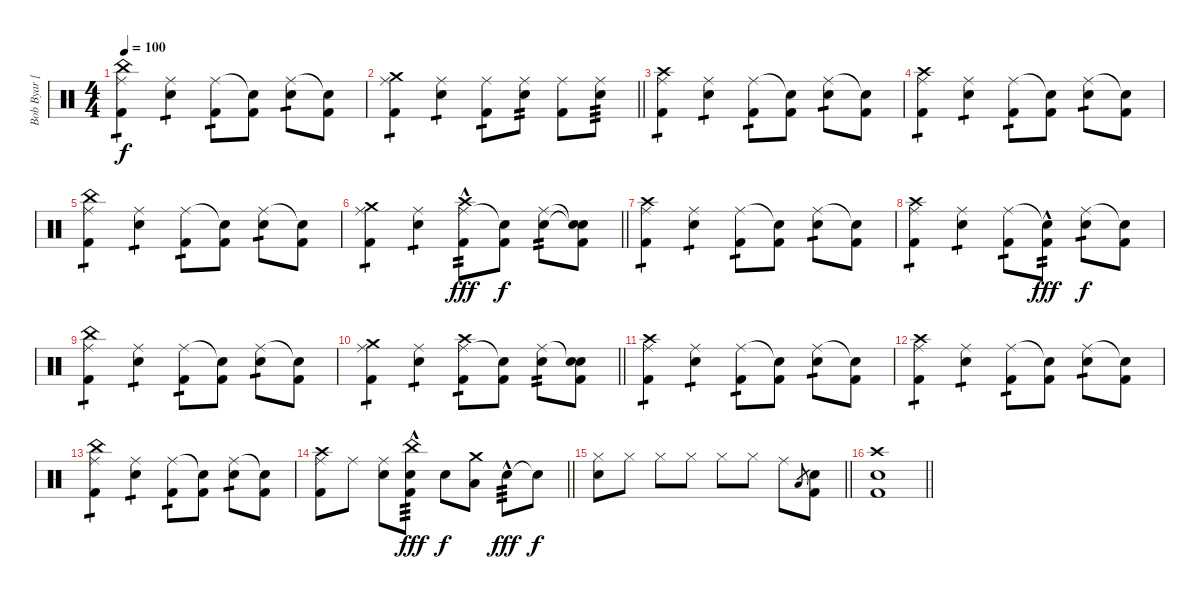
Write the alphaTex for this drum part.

\track ("Bob Byar [Drums]" "Bob Byar [") {instrument percussion}
\staff {score}
\articulation defaults
\ts (4 4)
\tempo 100
\clef neutral
\ks c
("Ride (middle)" "China (hit)" "Kick (hit) 2").4{tp 1 dy f} ("Ride (middle)" "Electric Snare (hit)").4{tp 1} ("Ride (middle)" "Kick (hit) 2").8{tp 1} ("Snare (hit)"{t} "Kick (hit) 2").8 ("Ride (middle)" "Electric Snare (hit)").8{tp 1} ("Snare (hit)"{t} "Kick (hit) 2").8 |
\barLineRight lightlight
("Ride (middle)" "Crash medium (hit)" "Kick (hit) 2").4{tp 1} ("Ride (middle)" "Electric Snare (hit)").4{tp 1} ("Ride (middle)" "Kick (hit) 2").8{tp 1} ("Ride (middle)" "Electric Snare (hit)").8{tp 2} ("Ride (middle)" "Kick (hit) 2").8 ("Ride (middle)" "Electric Snare (hit)").8{tp 3} |
("Ride (middle)" "Crash high (hit)" "Kick (hit) 2").4{tp 1} ("Ride (middle)" "Electric Snare (hit)").4{tp 1} ("Ride (middle)" "Kick (hit) 2").8{tp 1} ("Snare (hit)"{t} "Kick (hit) 2").8 ("Ride (middle)" "Electric Snare (hit)").8{tp 1} ("Snare (hit)"{t} "Kick (hit) 2").8 |
("Ride (middle)" "Crash high (hit)" "Kick (hit) 2").4{tp 1} ("Ride (middle)" "Electric Snare (hit)").4{tp 1} ("Ride (middle)" "Kick (hit) 2").8{tp 1} ("Snare (hit)"{t} "Kick (hit) 2").8 ("Ride (middle)" "Electric Snare (hit)").8{tp 1} ("Snare (hit)"{t} "Kick (hit) 2").8 |
("Ride (middle)" "China (hit)" "Kick (hit) 2").4{tp 1} ("Ride (middle)" "Electric Snare (hit)").4{tp 1} ("Ride (middle)" "Kick (hit) 2").8{tp 1} ("Snare (hit)"{t} "Kick (hit) 2").8 ("Ride (middle)" "Electric Snare (hit)").8{tp 1} ("Snare (hit)"{t} "Kick (hit) 2").8 |
\barLineRight lightlight
("Ride (middle)" "Crash medium (hit)" "Kick (hit) 2").4{tp 1} ("Ride (middle)" "Electric Snare (hit)").4{tp 1} ("Ride (middle)" "Crash high (hit)" "Kick (hit) 2"{hac}).8{tp 2 dy fff} ("Snare (hit)"{t} "Kick (hit) 2").8{dy f} ("Ride (middle)" "Electric Snare (hit)").8{tp 2} ("Snare (hit)"{t} "Electric Snare (hit)"{t} "Kick (hit) 2").8 |
("Ride (middle)" "Crash high (hit)" "Kick (hit) 2").4{tp 1} ("Ride (middle)" "Electric Snare (hit)").4{tp 1} ("Ride (middle)" "Kick (hit) 2").8{tp 1} ("Snare (hit)"{t} "Kick (hit) 2").8 ("Ride (middle)" "Electric Snare (hit)").8{tp 1} ("Snare (hit)"{t} "Kick (hit) 2").8 |
("Ride (middle)" "Crash high (hit)" "Kick (hit) 2").4{tp 1} ("Ride (middle)" "Electric Snare (hit)").4{tp 1} ("Ride (middle)" "Kick (hit) 2").8{tp 1} ("Snare (hit)"{t} "Kick (hit) 2"{hac}).8{tp 2 dy fff} ("Ride (middle)" "Electric Snare (hit)").8{tp 1 dy f} ("Snare (hit)"{t} "Kick (hit) 2").8 |
("Ride (middle)" "China (hit)" "Kick (hit) 2").4{tp 1} ("Ride (middle)" "Electric Snare (hit)").4{tp 1} ("Ride (middle)" "Kick (hit) 2").8{tp 1} ("Snare (hit)"{t} "Kick (hit) 2").8 ("Ride (middle)" "Electric Snare (hit)").8{tp 1} ("Snare (hit)"{t} "Kick (hit) 2").8 |
\barLineRight lightlight
("Ride (middle)" "Crash medium (hit)" "Kick (hit) 2").4{tp 1} ("Ride (middle)" "Electric Snare (hit)").4{tp 1} ("Ride (middle)" "Crash high (hit)" "Kick (hit) 2").8{tp 1} ("Snare (hit)"{t} "Kick (hit) 2").8 ("Ride (middle)" "Electric Snare (hit)").8{tp 2} ("Snare (hit)"{t} "Electric Snare (hit)" "Kick (hit) 2").8 |
("Ride (middle)" "Crash high (hit)" "Kick (hit) 2").4{tp 1} ("Ride (middle)" "Electric Snare (hit)").4{tp 1} ("Ride (middle)" "Kick (hit) 2").8{tp 1} ("Snare (hit)"{t} "Kick (hit) 2").8 ("Ride (middle)" "Electric Snare (hit)").8{tp 1} ("Snare (hit)"{t} "Kick (hit) 2").8 |
("Ride (middle)" "Crash high (hit)" "Kick (hit) 2").4{tp 1} ("Ride (middle)" "Electric Snare (hit)").4{tp 1} ("Ride (middle)" "Kick (hit) 2").8{tp 1} ("Snare (hit)"{t} "Kick (hit) 2").8 ("Ride (middle)" "Electric Snare (hit)").8{tp 1} ("Snare (hit)"{t} "Kick (hit) 2").8 |
("Ride (middle)" "China (hit)" "Kick (hit) 2").4{tp 1} ("Ride (middle)" "Electric Snare (hit)").4{tp 1} ("Ride (middle)" "Kick (hit) 2").8{tp 1} ("Snare (hit)"{t} "Kick (hit) 2").8 ("Ride (middle)" "Electric Snare (hit)").8{tp 1} ("Snare (hit)"{t} "Kick (hit) 2").8 |
\barLineRight lightlight
("Ride (middle)" "Crash high (hit)" "Kick (hit) 2").8 "Ride (middle)".8 ("Ride (middle)" "Electric Snare (hit)").8 ("China (hit)" "Electric Snare (hit)"{hac} "Kick (hit) 2").8{tp 3 dy fff} "Electric Snare (hit)".8{dy f} ("Crash medium (hit)" "Low Tom (hit)").8 "Electric Snare (hit)"{hac}.8{tp 3 dy fff} "Electric Snare (hit)"{t}.8{dy f} |
\barLineRight lightlight
("Hi-Hat (closed)" "Electric Snare (hit)").8 "Hi-Hat (closed)".8 "Hi-Hat (closed)".8 "Hi-Hat (closed)".8 "Hi-Hat (closed)".8 "Hi-Hat (closed)".8 "Ride (middle)".8 "Low Floor Tom (hit)".8{gr} ("Electric Snare (hit)" "Kick (hit) 2").8 |
\barLineRight lightlight
("Crash high (hit)" "Electric Snare (hit)" "Kick (hit) 2").1
